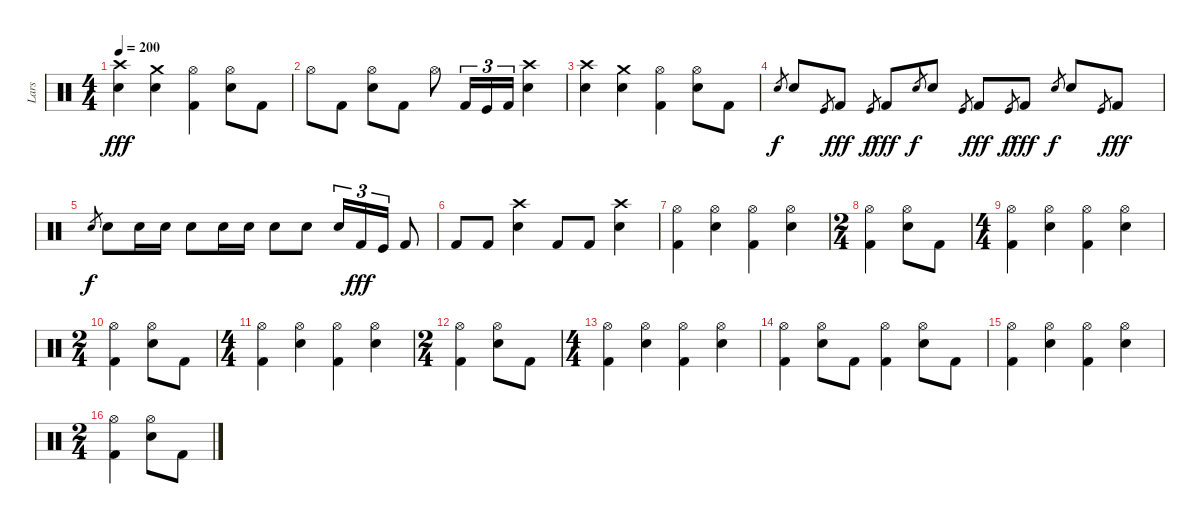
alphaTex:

\track ("Lars" "Lars") {instrument percussion}
\staff {score}
\articulation defaults
\ts (4 4)
\tempo 200
\clef neutral
\ks c
("Crash high (hit)" "Snare (hit) 2").4{dy fff} ("Crash medium (hit)" "Snare (hit) 2").4 ("Hi-Hat (open)" "Kick (hit) 2").4 ("Hi-Hat (open)" "Snare (hit) 2").8 "Kick (hit) 2".8 |
"Hi-Hat (open)".8 "Kick (hit) 2".8 ("Hi-Hat (open)" "Snare (hit) 2").8 "Kick (hit) 2".8 "Hi-Hat (open)".8 "Kick (hit) 2".16{tu (3 2)} "Kick (hit)".16{tu (3 2)} "Kick (hit) 2".16{tu (3 2)} ("Crash high (hit)" "Snare (hit) 2").4 |
("Crash high (hit)" "Snare (hit) 2").4 ("Crash medium (hit)" "Snare (hit) 2").4 ("Hi-Hat (open)" "Kick (hit) 2").4 ("Hi-Hat (open)" "Snare (hit) 2").8 "Kick (hit) 2".8 |
"Snare (hit) 2".8{gr dy f} "Snare (hit) 2".8 "Kick (hit)".8{gr} "Kick (hit) 2".8{dy fff} "Kick (hit)".8{gr dy f} "Kick (hit) 2".8{dy fff} "Snare (hit) 2".8{gr dy f} "Snare (hit) 2".8 "Kick (hit)".8{gr} "Kick (hit) 2".8{dy fff} "Kick (hit)".8{gr dy f} "Kick (hit) 2".8{dy fff} "Snare (hit) 2".8{gr dy f} "Snare (hit) 2".8 "Kick (hit)".8{gr} "Kick (hit) 2".8{dy fff} |
"Snare (hit) 2".8{gr dy f} "Snare (hit) 2".8 "Snare (hit) 2".16 "Snare (hit) 2".16 "Snare (hit) 2".8 "Snare (hit) 2".16 "Snare (hit) 2".16 "Snare (hit) 2".8 "Snare (hit) 2".8 "Snare (hit) 2".16{tu (3 2)} "Kick (hit) 2".16{tu (3 2) dy fff} "Kick (hit)".16{tu (3 2)} "Kick (hit) 2".8 |
"Kick (hit) 2".8 "Kick (hit) 2".8 ("Crash high (hit)" "Snare (hit) 2").4 "Kick (hit) 2".8 "Kick (hit) 2".8 ("Crash high (hit)" "Snare (hit) 2").4 |
("Hi-Hat (open)" "Kick (hit) 2").4 ("Hi-Hat (open)" "Snare (hit) 2").4 ("Hi-Hat (open)" "Kick (hit) 2").4 ("Hi-Hat (open)" "Snare (hit) 2").4 |
\ts (2 4)
("Hi-Hat (open)" "Kick (hit) 2").4 ("Hi-Hat (open)" "Snare (hit) 2").8 "Kick (hit) 2".8 |
\ts (4 4)
("Hi-Hat (open)" "Kick (hit) 2").4 ("Hi-Hat (open)" "Snare (hit) 2").4 ("Hi-Hat (open)" "Kick (hit) 2").4 ("Hi-Hat (open)" "Snare (hit) 2").4 |
\ts (2 4)
("Hi-Hat (open)" "Kick (hit) 2").4 ("Hi-Hat (open)" "Snare (hit) 2").8 "Kick (hit) 2".8 |
\ts (4 4)
("Hi-Hat (open)" "Kick (hit) 2").4 ("Hi-Hat (open)" "Snare (hit) 2").4 ("Hi-Hat (open)" "Kick (hit) 2").4 ("Hi-Hat (open)" "Snare (hit) 2").4 |
\ts (2 4)
("Hi-Hat (open)" "Kick (hit) 2").4 ("Hi-Hat (open)" "Snare (hit) 2").8 "Kick (hit) 2".8 |
\ts (4 4)
("Hi-Hat (open)" "Kick (hit) 2").4 ("Hi-Hat (open)" "Snare (hit) 2").4 ("Hi-Hat (open)" "Kick (hit) 2").4 ("Hi-Hat (open)" "Snare (hit) 2").4 |
("Hi-Hat (open)" "Kick (hit) 2").4 ("Hi-Hat (open)" "Snare (hit) 2").8 "Kick (hit) 2".8 ("Hi-Hat (open)" "Kick (hit) 2").4 ("Hi-Hat (open)" "Snare (hit) 2").8 "Kick (hit) 2".8 |
("Hi-Hat (open)" "Kick (hit) 2").4 ("Hi-Hat (open)" "Snare (hit) 2").4 ("Hi-Hat (open)" "Kick (hit) 2").4 ("Hi-Hat (open)" "Snare (hit) 2").4 |
\ts (2 4)
("Hi-Hat (open)" "Kick (hit) 2").4 ("Hi-Hat (open)" "Snare (hit) 2").8 "Kick (hit) 2".8
